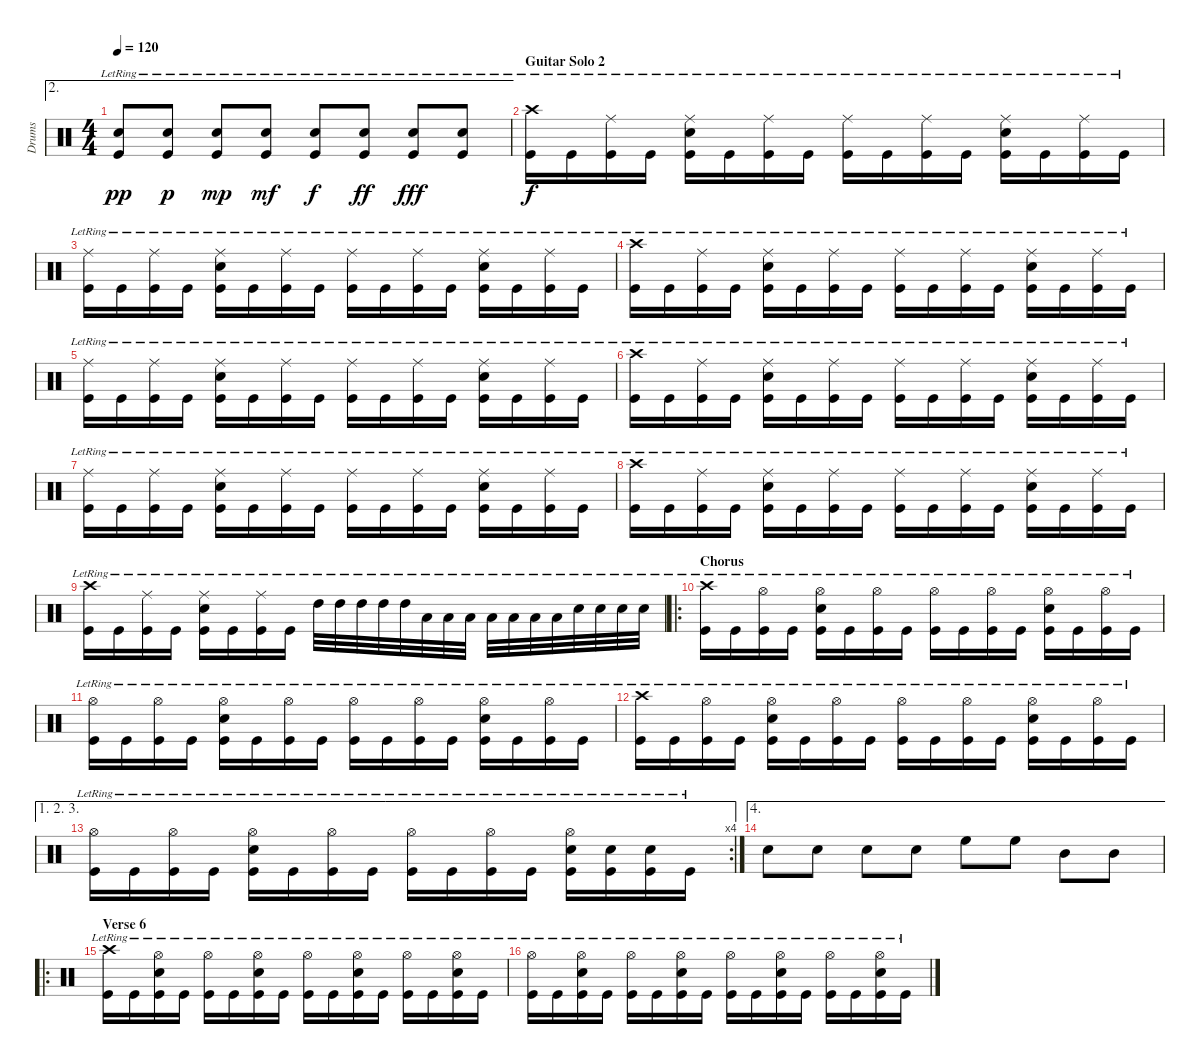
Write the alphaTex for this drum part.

\track ("Drums" "Drums") {instrument percussion}
\staff {score}
\articulation defaults
\ae 2
\ts (4 4)
\tempo 120
\clef neutral
\ks c
("Snare (hit) 2"{lr} "Kick (hit)"{lr}).8{dy pp} ("Snare (hit) 2"{lr} "Kick (hit)"{lr}).8{dy p} ("Snare (hit) 2"{lr} "Kick (hit)"{lr}).8{dy mp} ("Snare (hit) 2"{lr} "Kick (hit)"{lr}).8{dy mf} ("Snare (hit) 2"{lr} "Kick (hit)"{lr}).8{dy f} ("Snare (hit) 2"{lr} "Kick (hit)"{lr}).8{dy ff} ("Snare (hit) 2"{lr} "Kick (hit)"{lr}).8{dy fff} ("Snare (hit) 2"{lr} "Kick (hit)"{lr}).8 |
\section ("" "Guitar Solo 2")
("Crash high (hit)"{lr} "Kick (hit)"{lr}).16{dy f} "Kick (hit)"{lr}.16 ("Ride (middle)"{lr} "Kick (hit)"{lr}).16 "Kick (hit)"{lr}.16 ("Ride (middle)"{lr} "Snare (hit) 2"{lr} "Kick (hit)"{lr}).16 "Kick (hit)"{lr}.16 ("Ride (middle)"{lr} "Kick (hit)"{lr}).16 "Kick (hit)"{lr}.16 ("Ride (middle)"{lr} "Kick (hit)"{lr}).16 "Kick (hit)"{lr}.16 ("Ride (middle)"{lr} "Kick (hit)"{lr}).16 "Kick (hit)"{lr}.16 ("Ride (middle)"{lr} "Snare (hit) 2"{lr} "Kick (hit)"{lr}).16 "Kick (hit)"{lr}.16 ("Ride (middle)"{lr} "Kick (hit)"{lr}).16 "Kick (hit)"{lr}.16 |
("Ride (middle)"{lr} "Kick (hit)"{lr}).16 "Kick (hit)"{lr}.16 ("Ride (middle)"{lr} "Kick (hit)"{lr}).16 "Kick (hit)"{lr}.16 ("Ride (middle)"{lr} "Snare (hit) 2"{lr} "Kick (hit)"{lr}).16 "Kick (hit)"{lr}.16 ("Ride (middle)"{lr} "Kick (hit)"{lr}).16 "Kick (hit)"{lr}.16 ("Ride (middle)"{lr} "Kick (hit)"{lr}).16 "Kick (hit)"{lr}.16 ("Ride (middle)"{lr} "Kick (hit)"{lr}).16 "Kick (hit)"{lr}.16 ("Ride (middle)"{lr} "Snare (hit) 2"{lr} "Kick (hit)"{lr}).16 "Kick (hit)"{lr}.16 ("Ride (middle)"{lr} "Kick (hit)"{lr}).16 "Kick (hit)"{lr}.16 |
("Crash high (hit)"{lr} "Kick (hit)"{lr}).16 "Kick (hit)"{lr}.16 ("Ride (middle)"{lr} "Kick (hit)"{lr}).16 "Kick (hit)"{lr}.16 ("Ride (middle)"{lr} "Snare (hit) 2"{lr} "Kick (hit)"{lr}).16 "Kick (hit)"{lr}.16 ("Ride (middle)"{lr} "Kick (hit)"{lr}).16 "Kick (hit)"{lr}.16 ("Ride (middle)"{lr} "Kick (hit)"{lr}).16 "Kick (hit)"{lr}.16 ("Ride (middle)"{lr} "Kick (hit)"{lr}).16 "Kick (hit)"{lr}.16 ("Ride (middle)"{lr} "Snare (hit) 2"{lr} "Kick (hit)"{lr}).16 "Kick (hit)"{lr}.16 ("Ride (middle)"{lr} "Kick (hit)"{lr}).16 "Kick (hit)"{lr}.16 |
("Ride (middle)"{lr} "Kick (hit)"{lr}).16 "Kick (hit)"{lr}.16 ("Ride (middle)"{lr} "Kick (hit)"{lr}).16 "Kick (hit)"{lr}.16 ("Ride (middle)"{lr} "Snare (hit) 2"{lr} "Kick (hit)"{lr}).16 "Kick (hit)"{lr}.16 ("Ride (middle)"{lr} "Kick (hit)"{lr}).16 "Kick (hit)"{lr}.16 ("Ride (middle)"{lr} "Kick (hit)"{lr}).16 "Kick (hit)"{lr}.16 ("Ride (middle)"{lr} "Kick (hit)"{lr}).16 "Kick (hit)"{lr}.16 ("Ride (middle)"{lr} "Snare (hit) 2"{lr} "Kick (hit)"{lr}).16 "Kick (hit)"{lr}.16 ("Ride (middle)"{lr} "Kick (hit)"{lr}).16 "Kick (hit)"{lr}.16 |
("Crash high (hit)"{lr} "Kick (hit)"{lr}).16 "Kick (hit)"{lr}.16 ("Ride (middle)"{lr} "Kick (hit)"{lr}).16 "Kick (hit)"{lr}.16 ("Ride (middle)"{lr} "Snare (hit) 2"{lr} "Kick (hit)"{lr}).16 "Kick (hit)"{lr}.16 ("Ride (middle)"{lr} "Kick (hit)"{lr}).16 "Kick (hit)"{lr}.16 ("Ride (middle)"{lr} "Kick (hit)"{lr}).16 "Kick (hit)"{lr}.16 ("Ride (middle)"{lr} "Kick (hit)"{lr}).16 "Kick (hit)"{lr}.16 ("Ride (middle)"{lr} "Snare (hit) 2"{lr} "Kick (hit)"{lr}).16 "Kick (hit)"{lr}.16 ("Ride (middle)"{lr} "Kick (hit)"{lr}).16 "Kick (hit)"{lr}.16 |
("Ride (middle)"{lr} "Kick (hit)"{lr}).16 "Kick (hit)"{lr}.16 ("Ride (middle)"{lr} "Kick (hit)"{lr}).16 "Kick (hit)"{lr}.16 ("Ride (middle)"{lr} "Snare (hit) 2"{lr} "Kick (hit)"{lr}).16 "Kick (hit)"{lr}.16 ("Ride (middle)"{lr} "Kick (hit)"{lr}).16 "Kick (hit)"{lr}.16 ("Ride (middle)"{lr} "Kick (hit)"{lr}).16 "Kick (hit)"{lr}.16 ("Ride (middle)"{lr} "Kick (hit)"{lr}).16 "Kick (hit)"{lr}.16 ("Ride (middle)"{lr} "Snare (hit) 2"{lr} "Kick (hit)"{lr}).16 "Kick (hit)"{lr}.16 ("Ride (middle)"{lr} "Kick (hit)"{lr}).16 "Kick (hit)"{lr}.16 |
("Crash high (hit)"{lr} "Kick (hit)"{lr}).16 "Kick (hit)"{lr}.16 ("Ride (middle)"{lr} "Kick (hit)"{lr}).16 "Kick (hit)"{lr}.16 ("Ride (middle)"{lr} "Snare (hit) 2"{lr} "Kick (hit)"{lr}).16 "Kick (hit)"{lr}.16 ("Ride (middle)"{lr} "Kick (hit)"{lr}).16 "Kick (hit)"{lr}.16 ("Ride (middle)"{lr} "Kick (hit)"{lr}).16 "Kick (hit)"{lr}.16 ("Ride (middle)"{lr} "Kick (hit)"{lr}).16 "Kick (hit)"{lr}.16 ("Ride (middle)"{lr} "Snare (hit) 2"{lr} "Kick (hit)"{lr}).16 "Kick (hit)"{lr}.16 ("Ride (middle)"{lr} "Kick (hit)"{lr}).16 "Kick (hit)"{lr}.16 |
("Crash high (hit)"{lr} "Kick (hit)"{lr}).16 "Kick (hit)"{lr}.16 ("Ride (middle)"{lr} "Kick (hit)"{lr}).16 "Kick (hit)"{lr}.16 ("Ride (middle)"{lr} "Snare (hit) 2"{lr} "Kick (hit)"{lr}).16 "Kick (hit)"{lr}.16 ("Ride (middle)"{lr} "Kick (hit)"{lr}).16 "Kick (hit)"{lr}.16 "High Tom (hit)"{lr}.32 "High Tom (hit)"{lr}.32 "High Tom (hit)"{lr}.32 "High Tom (hit)"{lr}.32 "High Tom (hit)"{lr}.32 "Low Tom (hit)"{lr}.32 "Low Tom (hit)"{lr}.32 "Low Tom (hit)"{lr}.32 "Low Tom (hit)"{lr}.32 "Low Tom (hit)"{lr}.32 "Low Tom (hit)"{lr}.32 "Low Tom (hit)"{lr}.32 "Snare (hit) 2"{lr}.32 "Snare (hit) 2"{lr}.32 "Snare (hit) 2"{lr}.32 "Snare (hit) 2"{lr}.32 |
\ro
\section ("" "Chorus")
("Crash high (hit)"{lr} "Kick (hit)"{lr}).16 "Kick (hit)"{lr}.16 ("Hi-Hat (open)"{lr} "Kick (hit)"{lr}).16 "Kick (hit)"{lr}.16 ("Hi-Hat (open)"{lr} "Snare (hit) 2"{lr} "Kick (hit)"{lr}).16 "Kick (hit)"{lr}.16 ("Hi-Hat (open)"{lr} "Kick (hit)"{lr}).16 "Kick (hit)"{lr}.16 ("Hi-Hat (open)"{lr} "Kick (hit)"{lr}).16 "Kick (hit)"{lr}.16 ("Hi-Hat (open)"{lr} "Kick (hit)"{lr}).16 "Kick (hit)"{lr}.16 ("Hi-Hat (open)"{lr} "Snare (hit) 2"{lr} "Kick (hit)"{lr}).16 "Kick (hit)"{lr}.16 ("Hi-Hat (open)"{lr} "Kick (hit)"{lr}).16 "Kick (hit)"{lr}.16 |
("Hi-Hat (open)"{lr} "Kick (hit)"{lr}).16 "Kick (hit)"{lr}.16 ("Hi-Hat (open)"{lr} "Kick (hit)"{lr}).16 "Kick (hit)"{lr}.16 ("Hi-Hat (open)"{lr} "Snare (hit) 2"{lr} "Kick (hit)"{lr}).16 "Kick (hit)"{lr}.16 ("Hi-Hat (open)"{lr} "Kick (hit)"{lr}).16 "Kick (hit)"{lr}.16 ("Hi-Hat (open)"{lr} "Kick (hit)"{lr}).16 "Kick (hit)"{lr}.16 ("Hi-Hat (open)"{lr} "Kick (hit)"{lr}).16 "Kick (hit)"{lr}.16 ("Hi-Hat (open)"{lr} "Snare (hit) 2"{lr} "Kick (hit)"{lr}).16 "Kick (hit)"{lr}.16 ("Hi-Hat (open)"{lr} "Kick (hit)"{lr}).16 "Kick (hit)"{lr}.16 |
("Crash high (hit)"{lr} "Kick (hit)"{lr}).16 "Kick (hit)"{lr}.16 ("Hi-Hat (open)"{lr} "Kick (hit)"{lr}).16 "Kick (hit)"{lr}.16 ("Hi-Hat (open)"{lr} "Snare (hit) 2"{lr} "Kick (hit)"{lr}).16 "Kick (hit)"{lr}.16 ("Hi-Hat (open)"{lr} "Kick (hit)"{lr}).16 "Kick (hit)"{lr}.16 ("Hi-Hat (open)"{lr} "Kick (hit)"{lr}).16 "Kick (hit)"{lr}.16 ("Hi-Hat (open)"{lr} "Kick (hit)"{lr}).16 "Kick (hit)"{lr}.16 ("Hi-Hat (open)"{lr} "Snare (hit) 2"{lr} "Kick (hit)"{lr}).16 "Kick (hit)"{lr}.16 ("Hi-Hat (open)"{lr} "Kick (hit)"{lr}).16 "Kick (hit)"{lr}.16 |
\ae (1 2 3)
\rc 4
("Hi-Hat (open)"{lr} "Kick (hit)"{lr}).16 "Kick (hit)"{lr}.16 ("Hi-Hat (open)"{lr} "Kick (hit)"{lr}).16 "Kick (hit)"{lr}.16 ("Hi-Hat (open)"{lr} "Snare (hit) 2"{lr} "Kick (hit)"{lr}).16 "Kick (hit)"{lr}.16 ("Hi-Hat (open)"{lr} "Kick (hit)"{lr}).16 "Kick (hit)"{lr}.16 ("Hi-Hat (open)"{lr} "Kick (hit)"{lr}).16 "Kick (hit)"{lr}.16 ("Hi-Hat (open)"{lr} "Kick (hit)"{lr}).16 "Kick (hit)"{lr}.16 ("Hi-Hat (open)"{lr} "Snare (hit) 2"{lr} "Kick (hit)"{lr}).16 ("Snare (hit) 2"{lr} "Kick (hit)"{lr}).16 ("Snare (hit) 2"{lr} "Kick (hit)"{lr}).16 "Kick (hit)"{lr}.16 |
\ae 4 "Snare (hit) 2".8 "Snare (hit) 2".8 "Snare (hit) 2".8 "Snare (hit) 2".8 "High Floor Tom (hit)".8 "High Floor Tom (hit)".8 "Mid Tom (hit)".8 "Mid Tom (hit)".8
|
\ro
\section ("" "Verse 6")
("Crash high (hit)"{lr} "Kick (hit)"{lr}).16 "Kick (hit)"{lr}.16 ("Hi-Hat (open)"{lr} "Snare (hit) 2"{lr} "Kick (hit)"{lr}).16 "Kick (hit)"{lr}.16 ("Hi-Hat (open)"{lr} "Kick (hit)"{lr}).16 "Kick (hit)"{lr}.16 ("Hi-Hat (open)"{lr} "Snare (hit) 2"{lr} "Kick (hit)"{lr}).16 "Kick (hit)"{lr}.16 ("Hi-Hat (open)"{lr} "Kick (hit)"{lr}).16 "Kick (hit)"{lr}.16 ("Hi-Hat (open)"{lr} "Snare (hit) 2"{lr} "Kick (hit)"{lr}).16 "Kick (hit)"{lr}.16 ("Hi-Hat (open)"{lr} "Kick (hit)"{lr}).16 "Kick (hit)"{lr}.16 ("Hi-Hat (open)"{lr} "Snare (hit) 2"{lr} "Kick (hit)"{lr}).16 "Kick (hit)"{lr}.16 |
("Hi-Hat (open)"{lr} "Kick (hit)"{lr}).16 "Kick (hit)"{lr}.16 ("Hi-Hat (open)"{lr} "Snare (hit) 2"{lr} "Kick (hit)"{lr}).16 "Kick (hit)"{lr}.16 ("Hi-Hat (open)"{lr} "Kick (hit)"{lr}).16 "Kick (hit)"{lr}.16 ("Hi-Hat (open)"{lr} "Snare (hit) 2"{lr} "Kick (hit)"{lr}).16 "Kick (hit)"{lr}.16 ("Hi-Hat (open)"{lr} "Kick (hit)"{lr}).16 "Kick (hit)"{lr}.16 ("Hi-Hat (open)"{lr} "Snare (hit) 2"{lr} "Kick (hit)"{lr}).16 "Kick (hit)"{lr}.16 ("Hi-Hat (open)"{lr} "Kick (hit)"{lr}).16 "Kick (hit)"{lr}.16 ("Hi-Hat (open)"{lr} "Snare (hit) 2"{lr} "Kick (hit)"{lr}).16 "Kick (hit)"{lr}.16
